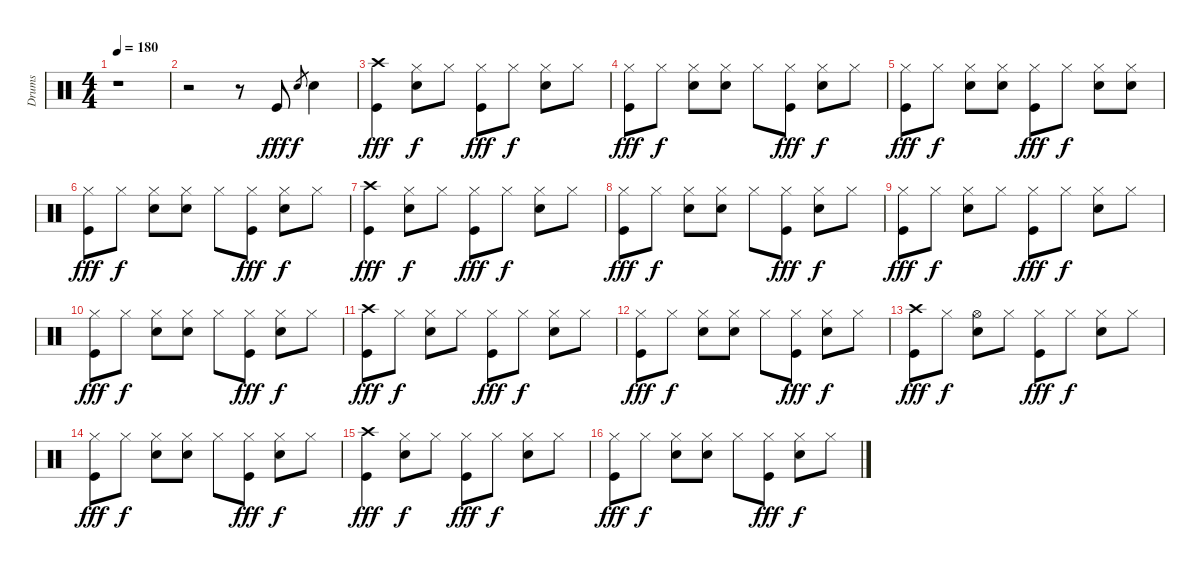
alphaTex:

\track ("Drums" "Drums") {instrument percussion}
\staff {score}
\articulation defaults
\ts (4 4)
\tempo 180
\clef neutral
\ks c
r.1{dy fff} |
r.2 r.8 "Kick (hit)".8 "Snare (hit) 2".8{gr dy f} "Snare (hit) 2".4 |
("Crash high (hit)" "Kick (hit)").4{dy fff} ("Hi-Hat (closed)" "Snare (hit) 2").8{dy f} "Hi-Hat (closed)".8 ("Hi-Hat (closed)" "Kick (hit)").8{dy fff} "Hi-Hat (closed)".8{dy f} ("Hi-Hat (closed)" "Snare (hit) 2").8 "Hi-Hat (closed)".8 |
("Hi-Hat (closed)" "Kick (hit)").8{dy fff} "Hi-Hat (closed)".8{dy f} ("Hi-Hat (closed)" "Snare (hit) 2").8 ("Hi-Hat (closed)" "Snare (hit) 2").8 "Hi-Hat (closed)".8 ("Hi-Hat (closed)" "Kick (hit)").8{dy fff} ("Hi-Hat (closed)" "Snare (hit) 2").8{dy f} "Hi-Hat (closed)".8 |
("Hi-Hat (closed)" "Kick (hit)").8{dy fff} "Hi-Hat (closed)".8{dy f} ("Hi-Hat (closed)" "Snare (hit) 2").8 ("Hi-Hat (closed)" "Snare (hit) 2").8 ("Hi-Hat (closed)" "Kick (hit)").8{dy fff} "Hi-Hat (closed)".8{dy f} ("Hi-Hat (closed)" "Snare (hit) 2").8 ("Hi-Hat (closed)" "Snare (hit) 2").8 |
("Hi-Hat (closed)" "Kick (hit)").8{dy fff} "Hi-Hat (closed)".8{dy f} ("Hi-Hat (closed)" "Snare (hit) 2").8 ("Hi-Hat (closed)" "Snare (hit) 2").8 "Hi-Hat (closed)".8 ("Hi-Hat (closed)" "Kick (hit)").8{dy fff} ("Hi-Hat (closed)" "Snare (hit) 2").8{dy f} "Hi-Hat (closed)".8 |
("Crash high (hit)" "Kick (hit)").4{dy fff} ("Hi-Hat (closed)" "Snare (hit) 2").8{dy f} "Hi-Hat (closed)".8 ("Hi-Hat (closed)" "Kick (hit)").8{dy fff} "Hi-Hat (closed)".8{dy f} ("Hi-Hat (closed)" "Snare (hit) 2").8 "Hi-Hat (closed)".8 |
("Hi-Hat (closed)" "Kick (hit)").8{dy fff} "Hi-Hat (closed)".8{dy f} ("Hi-Hat (closed)" "Snare (hit) 2").8 ("Hi-Hat (closed)" "Snare (hit) 2").8 "Hi-Hat (closed)".8 ("Hi-Hat (closed)" "Kick (hit)").8{dy fff} ("Hi-Hat (closed)" "Snare (hit) 2").8{dy f} "Hi-Hat (closed)".8 |
("Hi-Hat (closed)" "Kick (hit)").8{dy fff} "Hi-Hat (closed)".8{dy f} ("Hi-Hat (closed)" "Snare (hit) 2").8 "Hi-Hat (closed)".8 ("Hi-Hat (closed)" "Kick (hit)").8{dy fff} "Hi-Hat (closed)".8{dy f} ("Hi-Hat (closed)" "Snare (hit) 2").8 "Hi-Hat (closed)".8 |
("Hi-Hat (closed)" "Kick (hit)").8{dy fff} "Hi-Hat (closed)".8{dy f} ("Hi-Hat (closed)" "Snare (hit) 2").8 ("Hi-Hat (closed)" "Snare (hit) 2").8 "Hi-Hat (closed)".8 ("Hi-Hat (closed)" "Kick (hit)").8{dy fff} ("Hi-Hat (closed)" "Snare (hit) 2").8{dy f} "Hi-Hat (closed)".8 |
("Crash high (hit)" "Kick (hit)").8{dy fff} "Hi-Hat (closed)".8{dy f} ("Hi-Hat (closed)" "Snare (hit) 2").8 "Hi-Hat (closed)".8 ("Hi-Hat (closed)" "Kick (hit)").8{dy fff} "Hi-Hat (closed)".8{dy f} ("Hi-Hat (closed)" "Snare (hit) 2").8 "Hi-Hat (closed)".8 |
("Hi-Hat (closed)" "Kick (hit)").8{dy fff} "Hi-Hat (closed)".8{dy f} ("Hi-Hat (closed)" "Snare (hit) 2").8 ("Hi-Hat (closed)" "Snare (hit) 2").8 "Hi-Hat (closed)".8 ("Hi-Hat (closed)" "Kick (hit)").8{dy fff} ("Hi-Hat (closed)" "Snare (hit) 2").8{dy f} "Hi-Hat (closed)".8 |
("Crash high (hit)" "Kick (hit)").8{dy fff} "Hi-Hat (closed)".8{dy f} ("Hi-Hat (open)" "Snare (hit) 2").8 "Hi-Hat (closed)".8 ("Hi-Hat (closed)" "Kick (hit)").8{dy fff} "Hi-Hat (closed)".8{dy f} ("Hi-Hat (closed)" "Snare (hit) 2").8 "Hi-Hat (closed)".8 |
("Hi-Hat (closed)" "Kick (hit)").8{dy fff} "Hi-Hat (closed)".8{dy f} ("Hi-Hat (closed)" "Snare (hit) 2").8 ("Hi-Hat (closed)" "Snare (hit) 2").8 "Hi-Hat (closed)".8 ("Hi-Hat (closed)" "Kick (hit)").8{dy fff} ("Hi-Hat (closed)" "Snare (hit) 2").8{dy f} "Hi-Hat (closed)".8 |
("Crash high (hit)" "Kick (hit)").4{dy fff} ("Hi-Hat (closed)" "Snare (hit) 2").8{dy f} "Hi-Hat (closed)".8 ("Hi-Hat (closed)" "Kick (hit)").8{dy fff} "Hi-Hat (closed)".8{dy f} ("Hi-Hat (closed)" "Snare (hit) 2").8 "Hi-Hat (closed)".8 |
("Hi-Hat (closed)" "Kick (hit)").8{dy fff} "Hi-Hat (closed)".8{dy f} ("Hi-Hat (closed)" "Snare (hit) 2").8 ("Hi-Hat (closed)" "Snare (hit) 2").8 "Hi-Hat (closed)".8 ("Hi-Hat (closed)" "Kick (hit)").8{dy fff} ("Hi-Hat (closed)" "Snare (hit) 2").8{dy f} "Hi-Hat (closed)".8
